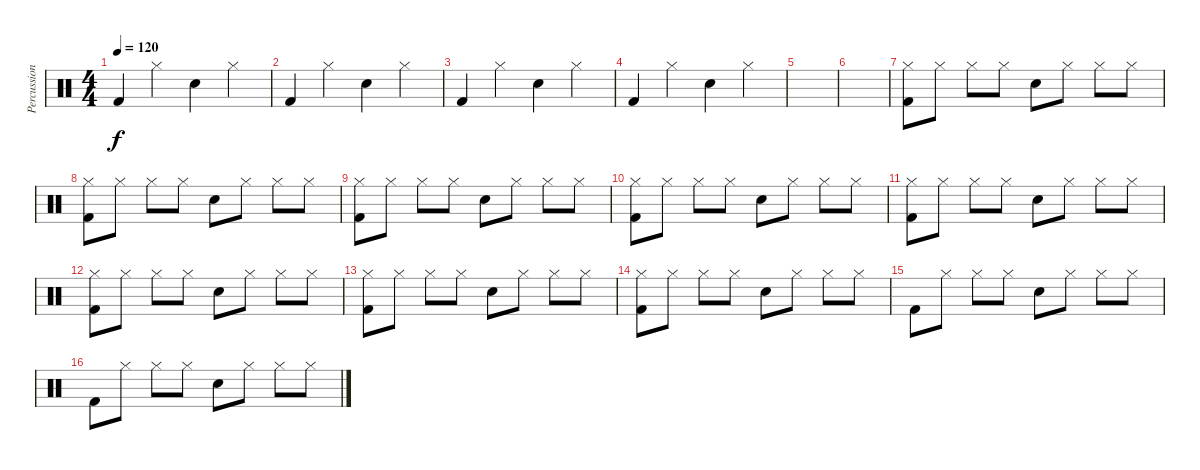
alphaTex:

\track ("Percussions" "Percussion") {instrument percussion}
\staff {score}
\articulation defaults
\ts (4 4)
\tempo 120
\clef neutral
\ks c "Kick (hit) 2".4{dy f} "Hi-Hat (closed)".4 "Electric Snare (hit)".4 "Hi-Hat (closed)".4
|
"Kick (hit) 2".4 "Hi-Hat (closed)".4 "Electric Snare (hit)".4 "Hi-Hat (closed)".4 |
"Kick (hit) 2".4 "Hi-Hat (closed)".4 "Electric Snare (hit)".4 "Hi-Hat (closed)".4 |
"Kick (hit) 2".4 "Hi-Hat (closed)".4 "Electric Snare (hit)".4 "Hi-Hat (closed)".4 |
|
|
("Hi-Hat (closed)" "Kick (hit) 2").8 "Hi-Hat (closed)".8 "Hi-Hat (closed)".8 "Hi-Hat (closed)".8 "Electric Snare (hit)".8 "Hi-Hat (closed)".8 "Hi-Hat (closed)".8 "Hi-Hat (closed)".8 |
("Hi-Hat (closed)" "Kick (hit) 2").8 "Hi-Hat (closed)".8 "Hi-Hat (closed)".8 "Hi-Hat (closed)".8 "Electric Snare (hit)".8 "Hi-Hat (closed)".8 "Hi-Hat (closed)".8 "Hi-Hat (closed)".8 |
("Hi-Hat (closed)" "Kick (hit) 2").8 "Hi-Hat (closed)".8 "Hi-Hat (closed)".8 "Hi-Hat (closed)".8 "Electric Snare (hit)".8 "Hi-Hat (closed)".8 "Hi-Hat (closed)".8 "Hi-Hat (closed)".8 |
("Hi-Hat (closed)" "Kick (hit) 2").8 "Hi-Hat (closed)".8 "Hi-Hat (closed)".8 "Hi-Hat (closed)".8 "Electric Snare (hit)".8 "Hi-Hat (closed)".8 "Hi-Hat (closed)".8 "Hi-Hat (closed)".8 |
("Hi-Hat (closed)" "Kick (hit) 2").8 "Hi-Hat (closed)".8 "Hi-Hat (closed)".8 "Hi-Hat (closed)".8 "Electric Snare (hit)".8 "Hi-Hat (closed)".8 "Hi-Hat (closed)".8 "Hi-Hat (closed)".8 |
("Hi-Hat (closed)" "Kick (hit) 2").8 "Hi-Hat (closed)".8 "Hi-Hat (closed)".8 "Hi-Hat (closed)".8 "Electric Snare (hit)".8 "Hi-Hat (closed)".8 "Hi-Hat (closed)".8 "Hi-Hat (closed)".8 |
("Hi-Hat (closed)" "Kick (hit) 2").8 "Hi-Hat (closed)".8 "Hi-Hat (closed)".8 "Hi-Hat (closed)".8 "Electric Snare (hit)".8 "Hi-Hat (closed)".8 "Hi-Hat (closed)".8 "Hi-Hat (closed)".8 |
("Hi-Hat (closed)" "Kick (hit) 2").8 "Hi-Hat (closed)".8 "Hi-Hat (closed)".8 "Hi-Hat (closed)".8 "Electric Snare (hit)".8 "Hi-Hat (closed)".8 "Hi-Hat (closed)".8 "Hi-Hat (closed)".8 |
"Kick (hit) 2".8 "Hi-Hat (closed)".8 "Hi-Hat (closed)".8 "Hi-Hat (closed)".8 "Electric Snare (hit)".8 "Hi-Hat (closed)".8 "Hi-Hat (closed)".8 "Hi-Hat (closed)".8 |
"Kick (hit) 2".8 "Hi-Hat (closed)".8 "Hi-Hat (closed)".8 "Hi-Hat (closed)".8 "Electric Snare (hit)".8 "Hi-Hat (closed)".8 "Hi-Hat (closed)".8 "Hi-Hat (closed)".8
